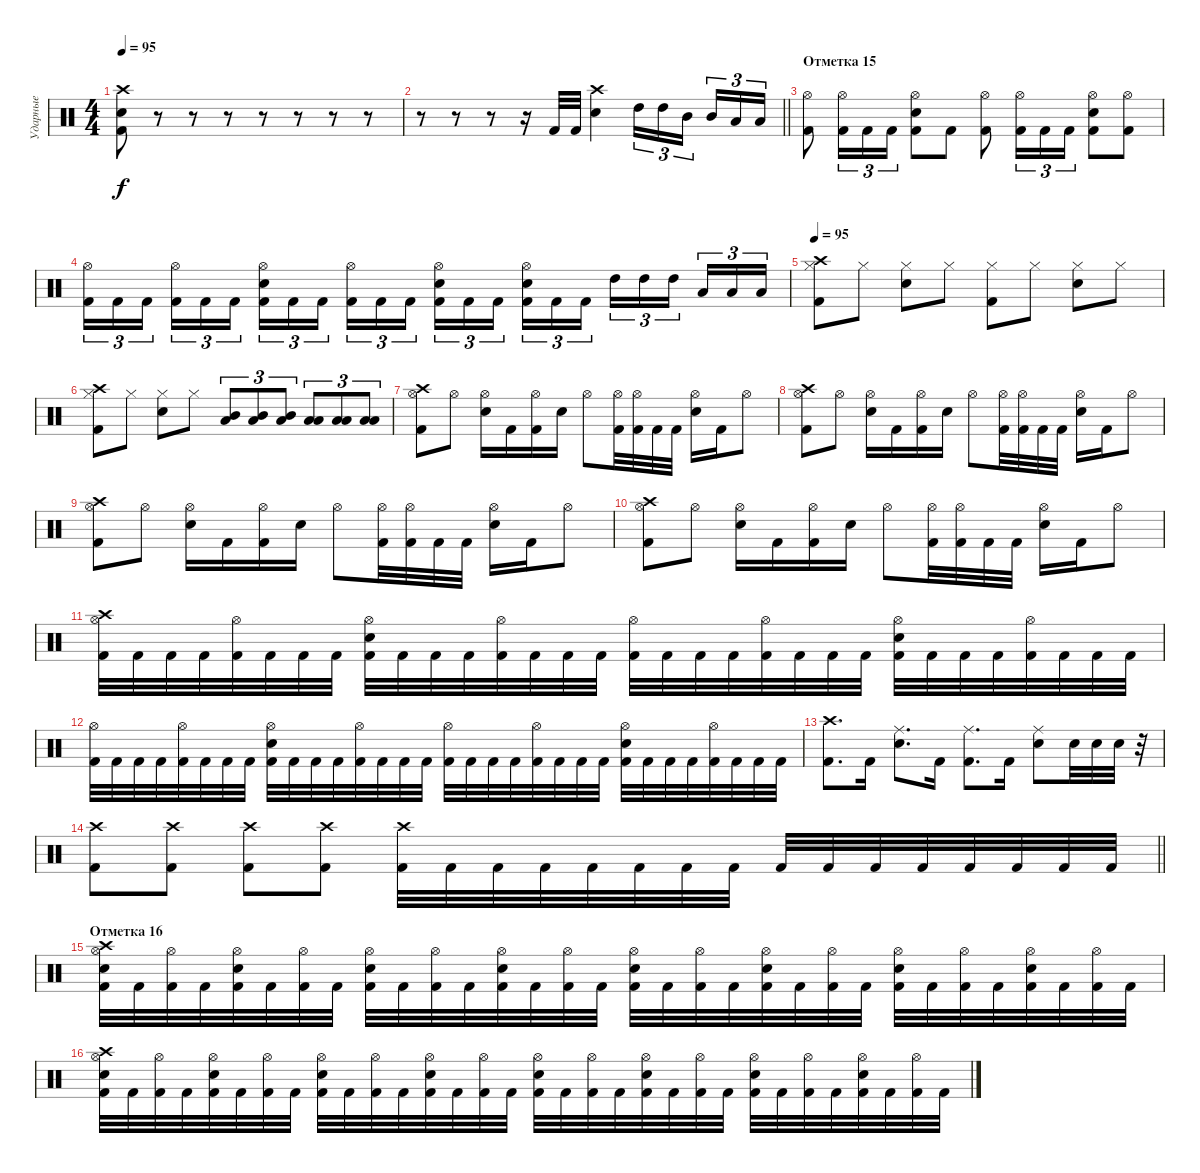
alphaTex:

\track ("Ударные" "Ударные") {instrument percussion}
\staff {score}
\articulation defaults
\ts (4 4)
\tempo 95
\clef neutral
\ks c
("Kick (hit) 2" "Electric Snare (hit)" "Crash high (hit)").8{dy f} r.8 r.8 r.8 r.8 r.8 r.8 r.8 |
\barLineRight lightlight
r.8 r.8 r.8 r.16 "Kick (hit) 2".32 "Kick (hit) 2".32 ("Crash high (hit)" "Electric Snare (hit)").4 "High Tom (hit)".16{tu (3 2)} "High Tom (hit)".16{tu (3 2)} "Mid Tom (hit)".16{tu (3 2) beam splitsecondary} "Mid Tom (hit)".16{tu (3 2)} "Low Tom (hit)".16{tu (3 2)} "Low Tom (hit)".16{tu (3 2)} |
\section ("" "Отметка 15")
("Kick (hit) 2" "Hi-Hat (open)").8 ("Kick (hit) 2" "Hi-Hat (open)").16{tu (3 2)} "Kick (hit) 2".16{tu (3 2)} "Kick (hit) 2".16{tu (3 2)} ("Kick (hit) 2" "Electric Snare (hit)" "Hi-Hat (open)").8 "Kick (hit) 2".8 ("Kick (hit) 2" "Hi-Hat (open)").8 ("Kick (hit) 2" "Hi-Hat (open)").16{tu (3 2)} "Kick (hit) 2".16{tu (3 2)} "Kick (hit) 2".16{tu (3 2)} ("Kick (hit) 2" "Electric Snare (hit)" "Hi-Hat (open)").8 ("Kick (hit) 2" "Hi-Hat (open)").8 |
("Kick (hit) 2" "Hi-Hat (open)").16{tu (3 2)} "Kick (hit) 2".16{tu (3 2)} "Kick (hit) 2".16{tu (3 2) beam splitsecondary} ("Kick (hit) 2" "Hi-Hat (open)").16{tu (3 2)} "Kick (hit) 2".16{tu (3 2)} "Kick (hit) 2".16{tu (3 2)} ("Kick (hit) 2" "Electric Snare (hit)" "Hi-Hat (open)").16{tu (3 2)} "Kick (hit) 2".16{tu (3 2)} "Kick (hit) 2".16{tu (3 2) beam splitsecondary} ("Kick (hit) 2" "Hi-Hat (open)").16{tu (3 2)} "Kick (hit) 2".16{tu (3 2)} "Kick (hit) 2".16{tu (3 2)} ("Kick (hit) 2" "Electric Snare (hit)" "Hi-Hat (open)").16{tu (3 2)} "Kick (hit) 2".16{tu (3 2)} "Kick (hit) 2".16{tu (3 2) beam splitsecondary} ("Kick (hit) 2" "Electric Snare (hit)" "Hi-Hat (open)").16{tu (3 2)} "Kick (hit) 2".16{tu (3 2)} "Kick (hit) 2".16{tu (3 2)} "High Tom (hit)".16{tu (3 2)} "High Tom (hit)".16{tu (3 2)} "High Tom (hit)".16{tu (3 2) beam splitsecondary} "Low Tom (hit)".16{tu (3 2)} "Low Tom (hit)".16{tu (3 2)} "Low Tom (hit)".16{tu (3 2)} |
\tempo 95
("Kick (hit) 2" "Hi-Hat (closed)" "Crash high (hit)").8 "Hi-Hat (closed)".8 ("Electric Snare (hit)" "Hi-Hat (closed)").8 "Hi-Hat (closed)".8 ("Kick (hit) 2" "Hi-Hat (closed)").8 "Hi-Hat (closed)".8 ("Electric Snare (hit)" "Hi-Hat (closed)").8 "Hi-Hat (closed)".8 |
("Kick (hit) 2" "Hi-Hat (closed)" "Crash high (hit)").8 "Hi-Hat (closed)".8 ("Electric Snare (hit)" "Hi-Hat (closed)").8 "Hi-Hat (closed)".8 ("Mid Tom (hit)" "Low Tom (hit)").8{tu (3 2)} ("Mid Tom (hit)" "Low Tom (hit)").8{tu (3 2)} ("Mid Tom (hit)" "Low Tom (hit)").8{tu (3 2)} ("Low Floor Tom (hit)" "Low Tom (hit)").8{tu (3 2)} ("Low Floor Tom (hit)" "Low Tom (hit)").8{tu (3 2)} ("Low Floor Tom (hit)" "Low Tom (hit)").8{tu (3 2)} |
("Kick (hit) 2" "Hi-Hat (open)" "Crash high (hit)").8 "Hi-Hat (open)".8 ("Electric Snare (hit)" "Hi-Hat (open)").16 "Kick (hit) 2".16 ("Kick (hit) 2" "Hi-Hat (open)").16 "Electric Snare (hit)".16 "Hi-Hat (open)".8 ("Kick (hit) 2" "Hi-Hat (open)").32 ("Kick (hit) 2" "Hi-Hat (open)").32 "Kick (hit) 2".32 "Kick (hit) 2".32 ("Electric Snare (hit)" "Hi-Hat (open)").16 "Kick (hit) 2".16 "Hi-Hat (open)".8 |
("Kick (hit) 2" "Hi-Hat (open)" "Crash high (hit)").8 "Hi-Hat (open)".8 ("Electric Snare (hit)" "Hi-Hat (open)").16 "Kick (hit) 2".16 ("Kick (hit) 2" "Hi-Hat (open)").16 "Electric Snare (hit)".16 "Hi-Hat (open)".8 ("Kick (hit) 2" "Hi-Hat (open)").32 ("Kick (hit) 2" "Hi-Hat (open)").32 "Kick (hit) 2".32 "Kick (hit) 2".32 ("Electric Snare (hit)" "Hi-Hat (open)").16 "Kick (hit) 2".16 "Hi-Hat (open)".8 |
("Kick (hit) 2" "Hi-Hat (open)" "Crash high (hit)").8 "Hi-Hat (open)".8 ("Electric Snare (hit)" "Hi-Hat (open)").16 "Kick (hit) 2".16 ("Kick (hit) 2" "Hi-Hat (open)").16 "Electric Snare (hit)".16 "Hi-Hat (open)".8 ("Kick (hit) 2" "Hi-Hat (open)").32 ("Kick (hit) 2" "Hi-Hat (open)").32 "Kick (hit) 2".32 "Kick (hit) 2".32 ("Electric Snare (hit)" "Hi-Hat (open)").16 "Kick (hit) 2".16 "Hi-Hat (open)".8 |
("Kick (hit) 2" "Hi-Hat (open)" "Crash high (hit)").8 "Hi-Hat (open)".8 ("Electric Snare (hit)" "Hi-Hat (open)").16 "Kick (hit) 2".16 ("Kick (hit) 2" "Hi-Hat (open)").16 "Electric Snare (hit)".16 "Hi-Hat (open)".8 ("Kick (hit) 2" "Hi-Hat (open)").32 ("Kick (hit) 2" "Hi-Hat (open)").32 "Kick (hit) 2".32 "Kick (hit) 2".32 ("Electric Snare (hit)" "Hi-Hat (open)").16 "Kick (hit) 2".16 "Hi-Hat (open)".8 |
("Kick (hit) 2" "Crash high (hit)" "Hi-Hat (open)").32 "Kick (hit) 2".32 "Kick (hit) 2".32 "Kick (hit) 2".32 ("Kick (hit) 2" "Hi-Hat (open)").32 "Kick (hit) 2".32 "Kick (hit) 2".32 "Kick (hit) 2".32 ("Kick (hit) 2" "Electric Snare (hit)" "Hi-Hat (open)").32 "Kick (hit) 2".32 "Kick (hit) 2".32 "Kick (hit) 2".32 ("Kick (hit) 2" "Hi-Hat (open)").32 "Kick (hit) 2".32 "Kick (hit) 2".32 "Kick (hit) 2".32 ("Kick (hit) 2" "Hi-Hat (open)").32 "Kick (hit) 2".32 "Kick (hit) 2".32 "Kick (hit) 2".32 ("Kick (hit) 2" "Hi-Hat (open)").32 "Kick (hit) 2".32 "Kick (hit) 2".32 "Kick (hit) 2".32 ("Kick (hit) 2" "Electric Snare (hit)" "Hi-Hat (open)").32 "Kick (hit) 2".32 "Kick (hit) 2".32 "Kick (hit) 2".32 ("Kick (hit) 2" "Hi-Hat (open)").32 "Kick (hit) 2".32 "Kick (hit) 2".32 "Kick (hit) 2".32 |
("Kick (hit) 2" "Hi-Hat (open)").32 "Kick (hit) 2".32 "Kick (hit) 2".32 "Kick (hit) 2".32 ("Kick (hit) 2" "Hi-Hat (open)").32 "Kick (hit) 2".32 "Kick (hit) 2".32 "Kick (hit) 2".32 ("Kick (hit) 2" "Electric Snare (hit)" "Hi-Hat (open)").32 "Kick (hit) 2".32 "Kick (hit) 2".32 "Kick (hit) 2".32 ("Kick (hit) 2" "Hi-Hat (open)").32 "Kick (hit) 2".32 "Kick (hit) 2".32 "Kick (hit) 2".32 ("Kick (hit) 2" "Hi-Hat (open)").32 "Kick (hit) 2".32 "Kick (hit) 2".32 "Kick (hit) 2".32 ("Kick (hit) 2" "Hi-Hat (open)").32 "Kick (hit) 2".32 "Kick (hit) 2".32 "Kick (hit) 2".32 ("Kick (hit) 2" "Electric Snare (hit)" "Hi-Hat (open)").32 "Kick (hit) 2".32 "Kick (hit) 2".32 "Kick (hit) 2".32 ("Kick (hit) 2" "Hi-Hat (open)").32 "Kick (hit) 2".32 "Kick (hit) 2".32 "Kick (hit) 2".32 |
("Kick (hit) 2" "Crash high (hit)").8{d} "Kick (hit) 2".16 ("Electric Snare (hit)" "Ride (middle)").8{d} "Kick (hit) 2".16 ("Kick (hit) 2" "Ride (middle)").8{d} "Kick (hit) 2".16 ("Electric Snare (hit)" "Ride (middle)").8 "Electric Snare (hit)".32 "Electric Snare (hit)".32 "Electric Snare (hit)".32 r.32 |
\barLineRight lightlight
("Kick (hit) 2" "Crash high (hit)").8 ("Kick (hit) 2" "Crash high (hit)").8 ("Kick (hit) 2" "Crash high (hit)").8 ("Kick (hit) 2" "Crash high (hit)").8 ("Kick (hit) 2" "Crash high (hit)").32 "Kick (hit) 2".32 "Kick (hit) 2".32 "Kick (hit) 2".32 "Kick (hit) 2".32 "Kick (hit) 2".32 "Kick (hit) 2".32 "Kick (hit) 2".32 "Kick (hit) 2".32 "Kick (hit) 2".32 "Kick (hit) 2".32 "Kick (hit) 2".32 "Kick (hit) 2".32 "Kick (hit) 2".32 "Kick (hit) 2".32 "Kick (hit) 2".32 |
\section ("" "Отметка 16")
("Kick (hit) 2" "Electric Snare (hit)" "Hi-Hat (open)" "Crash high (hit)").32 "Kick (hit) 2".32 ("Kick (hit) 2" "Hi-Hat (open)").32 "Kick (hit) 2".32 ("Kick (hit) 2" "Electric Snare (hit)" "Hi-Hat (open)").32 "Kick (hit) 2".32 ("Kick (hit) 2" "Hi-Hat (open)").32 "Kick (hit) 2".32 ("Kick (hit) 2" "Electric Snare (hit)" "Hi-Hat (open)").32 "Kick (hit) 2".32 ("Kick (hit) 2" "Hi-Hat (open)").32 "Kick (hit) 2".32 ("Kick (hit) 2" "Electric Snare (hit)" "Hi-Hat (open)").32 "Kick (hit) 2".32 ("Kick (hit) 2" "Hi-Hat (open)").32 "Kick (hit) 2".32 ("Kick (hit) 2" "Electric Snare (hit)" "Hi-Hat (open)").32 "Kick (hit) 2".32 ("Kick (hit) 2" "Hi-Hat (open)").32 "Kick (hit) 2".32 ("Kick (hit) 2" "Electric Snare (hit)" "Hi-Hat (open)").32 "Kick (hit) 2".32 ("Kick (hit) 2" "Hi-Hat (open)").32 "Kick (hit) 2".32 ("Kick (hit) 2" "Electric Snare (hit)" "Hi-Hat (open)").32 "Kick (hit) 2".32 ("Kick (hit) 2" "Hi-Hat (open)").32 "Kick (hit) 2".32 ("Kick (hit) 2" "Electric Snare (hit)" "Hi-Hat (open)").32 "Kick (hit) 2".32 ("Kick (hit) 2" "Hi-Hat (open)").32 "Kick (hit) 2".32 |
("Kick (hit) 2" "Electric Snare (hit)" "Hi-Hat (open)" "Crash high (hit)").32 "Kick (hit) 2".32 ("Kick (hit) 2" "Hi-Hat (open)").32 "Kick (hit) 2".32 ("Kick (hit) 2" "Electric Snare (hit)" "Hi-Hat (open)").32 "Kick (hit) 2".32 ("Kick (hit) 2" "Hi-Hat (open)").32 "Kick (hit) 2".32 ("Kick (hit) 2" "Electric Snare (hit)" "Hi-Hat (open)").32 "Kick (hit) 2".32 ("Kick (hit) 2" "Hi-Hat (open)").32 "Kick (hit) 2".32 ("Kick (hit) 2" "Electric Snare (hit)" "Hi-Hat (open)").32 "Kick (hit) 2".32 ("Kick (hit) 2" "Hi-Hat (open)").32 "Kick (hit) 2".32 ("Kick (hit) 2" "Electric Snare (hit)" "Hi-Hat (open)").32 "Kick (hit) 2".32 ("Kick (hit) 2" "Hi-Hat (open)").32 "Kick (hit) 2".32 ("Kick (hit) 2" "Electric Snare (hit)" "Hi-Hat (open)").32 "Kick (hit) 2".32 ("Kick (hit) 2" "Hi-Hat (open)").32 "Kick (hit) 2".32 ("Kick (hit) 2" "Electric Snare (hit)" "Hi-Hat (open)").32 "Kick (hit) 2".32 ("Kick (hit) 2" "Hi-Hat (open)").32 "Kick (hit) 2".32 ("Kick (hit) 2" "Electric Snare (hit)" "Hi-Hat (open)").32 "Kick (hit) 2".32 ("Kick (hit) 2" "Hi-Hat (open)").32 "Kick (hit) 2".32
